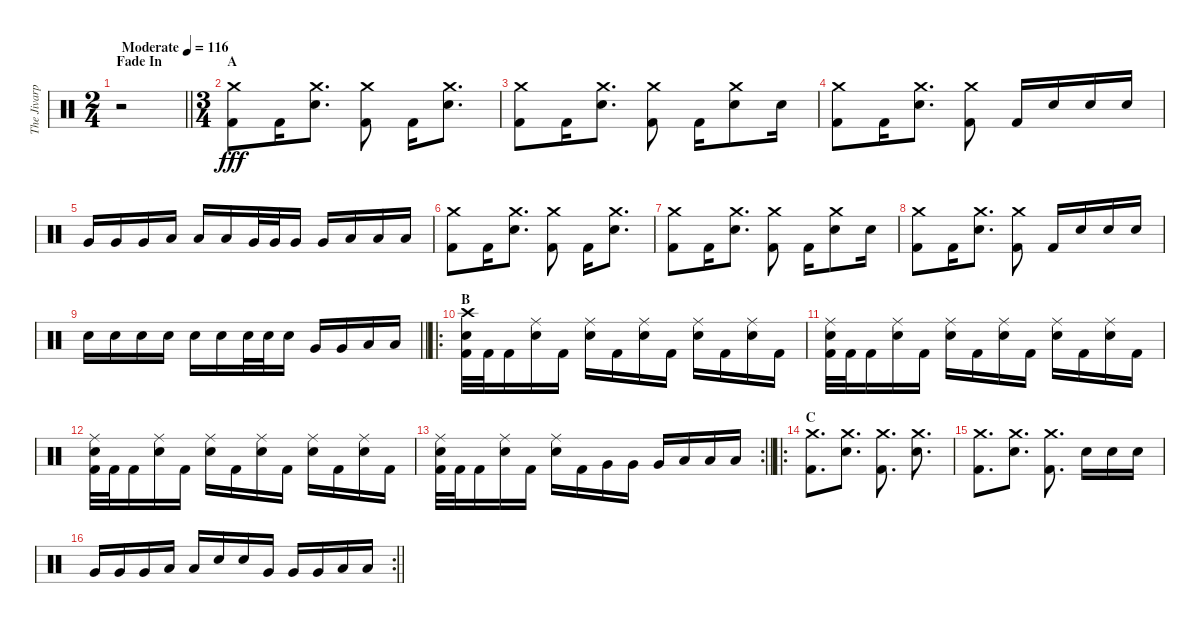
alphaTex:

\track ("The Jivarp" "The Jivarp") {instrument percussion}
\staff {score}
\articulation defaults
\ts (2 4)
\section ("" "Fade In")
\tempo (116 "Moderate")
\clef neutral
\barLineRight lightlight
\ks c
r.2{dy fff} |
\ts (3 4)
\section ("" "A")
("Crash medium (hit)" "Kick (hit) 2").8 "Kick (hit) 2".16 ("Crash medium (hit)" "Electric Snare (hit)").8{d} ("Crash medium (hit)" "Kick (hit) 2").8 "Kick (hit) 2".16 ("Crash medium (hit)" "Electric Snare (hit)").8{d} |
("Crash medium (hit)" "Kick (hit) 2").8 "Kick (hit) 2".16 ("Crash medium (hit)" "Electric Snare (hit)").8{d} ("Crash medium (hit)" "Kick (hit) 2").8 "Kick (hit) 2".16 ("Crash medium (hit)" "Electric Snare (hit)").8 "Electric Snare (hit)".16 |
("Crash medium (hit)" "Kick (hit) 2").8 "Kick (hit) 2".16 ("Crash medium (hit)" "Electric Snare (hit)").8{d} ("Crash medium (hit)" "Kick (hit) 2").8 "Kick (hit) 2".16 "Electric Snare (hit)".16 "Electric Snare (hit)".16 "Electric Snare (hit)".16 |
"Very Low Tom (hit)".16 "Very Low Tom (hit)".16 "Very Low Tom (hit)".16 "Low Tom (hit)".16 "Low Tom (hit)".16 "Low Tom (hit)".16 "Very Low Tom (hit)".32 "Very Low Tom (hit)".32 "Very Low Tom (hit)".16 "Very Low Tom (hit)".16 "Low Tom (hit)".16 "Low Tom (hit)".16 "Low Tom (hit)".16 |
("Crash medium (hit)" "Kick (hit) 2").8 "Kick (hit) 2".16 ("Crash medium (hit)" "Electric Snare (hit)").8{d} ("Crash medium (hit)" "Kick (hit) 2").8 "Kick (hit) 2".16 ("Crash medium (hit)" "Electric Snare (hit)").8{d} |
("Crash medium (hit)" "Kick (hit) 2").8 "Kick (hit) 2".16 ("Crash medium (hit)" "Electric Snare (hit)").8{d} ("Crash medium (hit)" "Kick (hit) 2").8 "Kick (hit) 2".16 ("Crash medium (hit)" "Electric Snare (hit)").8 "Electric Snare (hit)".16 |
("Crash medium (hit)" "Kick (hit) 2").8 "Kick (hit) 2".16 ("Crash medium (hit)" "Electric Snare (hit)").8{d} ("Crash medium (hit)" "Kick (hit) 2").8 "Kick (hit) 2".16 "Electric Snare (hit)".16 "Electric Snare (hit)".16 "Electric Snare (hit)".16 |
\barLineRight lightlight "Electric Snare (hit)".16 "Electric Snare (hit)".16 "Electric Snare (hit)".16 "Electric Snare (hit)".16 "Electric Snare (hit)".16 "Electric Snare (hit)".16 "Electric Snare (hit)".32 "Electric Snare (hit)".32 "Electric Snare (hit)".16 "Very Low Tom (hit)".16 "Very Low Tom (hit)".16 "Low Tom (hit)".16 "Low Tom (hit)".16
|
\ro
\section ("" "B")
("Crash high (hit)" "Electric Snare (hit)" "Kick (hit) 2").32 "Kick (hit) 2".32 "Kick (hit) 2".16 ("Ride (middle)" "Electric Snare (hit)").16 "Kick (hit) 2".16 ("Ride (middle)" "Electric Snare (hit)").16 "Kick (hit) 2".16 ("Ride (middle)" "Electric Snare (hit)").16 "Kick (hit) 2".16 ("Ride (middle)" "Electric Snare (hit)").16 "Kick (hit) 2".16 ("Ride (middle)" "Electric Snare (hit)").16 "Kick (hit) 2".16 |
("Ride (middle)" "Electric Snare (hit)" "Kick (hit) 2").32 "Kick (hit) 2".32 "Kick (hit) 2".16 ("Ride (middle)" "Electric Snare (hit)").16 "Kick (hit) 2".16 ("Ride (middle)" "Electric Snare (hit)").16 "Kick (hit) 2".16 ("Ride (middle)" "Electric Snare (hit)").16 "Kick (hit) 2".16 ("Ride (middle)" "Electric Snare (hit)").16 "Kick (hit) 2".16 ("Ride (middle)" "Electric Snare (hit)").16 "Kick (hit) 2".16 |
("Ride (middle)" "Electric Snare (hit)" "Kick (hit) 2").32 "Kick (hit) 2".32 "Kick (hit) 2".16 ("Ride (middle)" "Electric Snare (hit)").16 "Kick (hit) 2".16 ("Ride (middle)" "Electric Snare (hit)").16 "Kick (hit) 2".16 ("Ride (middle)" "Electric Snare (hit)").16 "Kick (hit) 2".16 ("Ride (middle)" "Electric Snare (hit)").16 "Kick (hit) 2".16 ("Ride (middle)" "Electric Snare (hit)").16 "Kick (hit) 2".16 |
\rc 2
\barLineRight lightlight
("Ride (middle)" "Electric Snare (hit)" "Kick (hit) 2").32 "Kick (hit) 2".32 "Kick (hit) 2".16 ("Ride (middle)" "Electric Snare (hit)").16 "Kick (hit) 2".16 ("Ride (middle)" "Electric Snare (hit)").16 "Kick (hit) 2".16 "Very Low Tom (hit)".16 "Very Low Tom (hit)".16 "Very Low Tom (hit)".16 "Low Tom (hit)".16 "Low Tom (hit)".16 "Low Tom (hit)".16 |
\ro
\section ("" "C")
("Crash medium (hit)" "Kick (hit) 2").8{d} ("Crash medium (hit)" "Electric Snare (hit)").8{d} ("Crash medium (hit)" "Kick (hit) 2").8{d} ("Crash medium (hit)" "Electric Snare (hit)").8{d} |
("Crash medium (hit)" "Kick (hit) 2").8{d} ("Crash medium (hit)" "Electric Snare (hit)").8{d} ("Crash medium (hit)" "Kick (hit) 2").8{d} "Electric Snare (hit)".16 "Electric Snare (hit)".16 "Electric Snare (hit)".16 |
\rc 2
\barLineRight lightlight "Very Low Tom (hit)".16 "Very Low Tom (hit)".16 "Very Low Tom (hit)".16 "Low Tom (hit)".16 "Low Tom (hit)".16 "Electric Snare (hit)".16 "Electric Snare (hit)".16 "Very Low Tom (hit)".16 "Very Low Tom (hit)".16 "Very Low Tom (hit)".16 "Low Tom (hit)".16 "Low Tom (hit)".16
